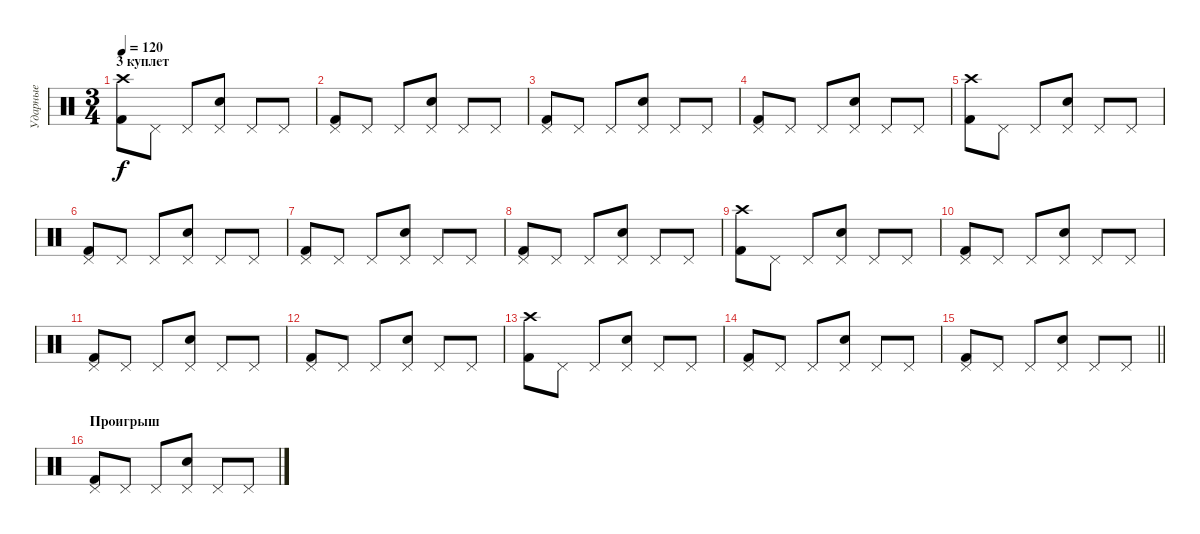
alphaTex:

\track ("Ударные" "Ударные") {instrument percussion}
\staff {score}
\articulation defaults
\ts (3 4)
\section ("" "3 куплет")
\tempo 120
\clef neutral
\ks c
("Crash high (hit)" "Kick (hit) 2").8{dy f} "Pedal Hi-Hat (hit)".8 "Pedal Hi-Hat (hit)".8 ("Pedal Hi-Hat (hit)" "Snare (hit) 2").8 "Pedal Hi-Hat (hit)".8 "Pedal Hi-Hat (hit)".8 |
("Pedal Hi-Hat (hit)" "Kick (hit) 2").8 "Pedal Hi-Hat (hit)".8 "Pedal Hi-Hat (hit)".8 ("Pedal Hi-Hat (hit)" "Snare (hit) 2").8 "Pedal Hi-Hat (hit)".8 "Pedal Hi-Hat (hit)".8 |
("Pedal Hi-Hat (hit)" "Kick (hit) 2").8 "Pedal Hi-Hat (hit)".8 "Pedal Hi-Hat (hit)".8 ("Pedal Hi-Hat (hit)" "Snare (hit) 2").8 "Pedal Hi-Hat (hit)".8 "Pedal Hi-Hat (hit)".8 |
("Pedal Hi-Hat (hit)" "Kick (hit) 2").8 "Pedal Hi-Hat (hit)".8 "Pedal Hi-Hat (hit)".8 ("Pedal Hi-Hat (hit)" "Snare (hit) 2").8 "Pedal Hi-Hat (hit)".8 "Pedal Hi-Hat (hit)".8 |
("Crash high (hit)" "Kick (hit) 2").8 "Pedal Hi-Hat (hit)".8 "Pedal Hi-Hat (hit)".8 ("Pedal Hi-Hat (hit)" "Snare (hit) 2").8 "Pedal Hi-Hat (hit)".8 "Pedal Hi-Hat (hit)".8 |
("Pedal Hi-Hat (hit)" "Kick (hit) 2").8 "Pedal Hi-Hat (hit)".8 "Pedal Hi-Hat (hit)".8 ("Pedal Hi-Hat (hit)" "Snare (hit) 2").8 "Pedal Hi-Hat (hit)".8 "Pedal Hi-Hat (hit)".8 |
("Pedal Hi-Hat (hit)" "Kick (hit) 2").8 "Pedal Hi-Hat (hit)".8 "Pedal Hi-Hat (hit)".8 ("Pedal Hi-Hat (hit)" "Snare (hit) 2").8 "Pedal Hi-Hat (hit)".8 "Pedal Hi-Hat (hit)".8 |
("Pedal Hi-Hat (hit)" "Kick (hit) 2").8 "Pedal Hi-Hat (hit)".8 "Pedal Hi-Hat (hit)".8 ("Pedal Hi-Hat (hit)" "Snare (hit) 2").8 "Pedal Hi-Hat (hit)".8 "Pedal Hi-Hat (hit)".8 |
("Crash high (hit)" "Kick (hit) 2").8 "Pedal Hi-Hat (hit)".8 "Pedal Hi-Hat (hit)".8 ("Pedal Hi-Hat (hit)" "Snare (hit) 2").8 "Pedal Hi-Hat (hit)".8 "Pedal Hi-Hat (hit)".8 |
("Pedal Hi-Hat (hit)" "Kick (hit) 2").8 "Pedal Hi-Hat (hit)".8 "Pedal Hi-Hat (hit)".8 ("Pedal Hi-Hat (hit)" "Snare (hit) 2").8 "Pedal Hi-Hat (hit)".8 "Pedal Hi-Hat (hit)".8 |
("Pedal Hi-Hat (hit)" "Kick (hit) 2").8 "Pedal Hi-Hat (hit)".8 "Pedal Hi-Hat (hit)".8 ("Pedal Hi-Hat (hit)" "Snare (hit) 2").8 "Pedal Hi-Hat (hit)".8 "Pedal Hi-Hat (hit)".8 |
("Pedal Hi-Hat (hit)" "Kick (hit) 2").8 "Pedal Hi-Hat (hit)".8 "Pedal Hi-Hat (hit)".8 ("Pedal Hi-Hat (hit)" "Snare (hit) 2").8 "Pedal Hi-Hat (hit)".8 "Pedal Hi-Hat (hit)".8 |
("Crash high (hit)" "Kick (hit) 2").8 "Pedal Hi-Hat (hit)".8 "Pedal Hi-Hat (hit)".8 ("Pedal Hi-Hat (hit)" "Snare (hit) 2").8 "Pedal Hi-Hat (hit)".8 "Pedal Hi-Hat (hit)".8 |
("Pedal Hi-Hat (hit)" "Kick (hit) 2").8 "Pedal Hi-Hat (hit)".8 "Pedal Hi-Hat (hit)".8 ("Pedal Hi-Hat (hit)" "Snare (hit) 2").8 "Pedal Hi-Hat (hit)".8 "Pedal Hi-Hat (hit)".8 |
\barLineRight lightlight
("Pedal Hi-Hat (hit)" "Kick (hit) 2").8 "Pedal Hi-Hat (hit)".8 "Pedal Hi-Hat (hit)".8 ("Pedal Hi-Hat (hit)" "Snare (hit) 2").8 "Pedal Hi-Hat (hit)".8 "Pedal Hi-Hat (hit)".8 |
\section ("" "Проигрыш")
("Pedal Hi-Hat (hit)" "Kick (hit) 2").8 "Pedal Hi-Hat (hit)".8 "Pedal Hi-Hat (hit)".8 ("Pedal Hi-Hat (hit)" "Snare (hit) 2").8 "Pedal Hi-Hat (hit)".8 "Pedal Hi-Hat (hit)".8
